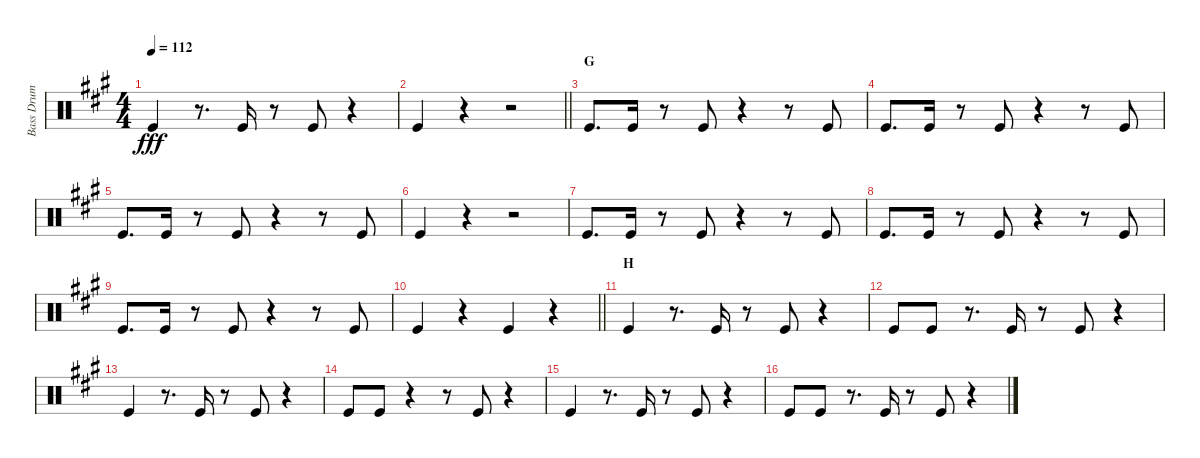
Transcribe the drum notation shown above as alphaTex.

\track ("Bass Drum" "Bass Drum") {instrument percussion}
\staff {score}
\articulation defaults
\ts (4 4)
\tempo 112
\clef neutral
\ks a "Kick (hit)".4{dy fff}
r.8{d} "Kick (hit)".16 r.8 "Kick (hit)".8 r.4 |
\barLineRight lightlight "Kick (hit)".4
r.4 r.2 |
\section ("" "G")
"Kick (hit)".8{d} "Kick (hit)".16 r.8 "Kick (hit)".8 r.4 r.8 "Kick (hit)".8 |
"Kick (hit)".8{d} "Kick (hit)".16 r.8 "Kick (hit)".8 r.4 r.8 "Kick (hit)".8 |
"Kick (hit)".8{d} "Kick (hit)".16 r.8 "Kick (hit)".8 r.4 r.8 "Kick (hit)".8 |
"Kick (hit)".4 r.4 r.2 |
"Kick (hit)".8{d} "Kick (hit)".16 r.8 "Kick (hit)".8 r.4 r.8 "Kick (hit)".8 |
"Kick (hit)".8{d} "Kick (hit)".16 r.8 "Kick (hit)".8 r.4 r.8 "Kick (hit)".8 |
"Kick (hit)".8{d} "Kick (hit)".16 r.8 "Kick (hit)".8 r.4 r.8 "Kick (hit)".8 |
\barLineRight lightlight "Kick (hit)".4
r.4 "Kick (hit)".4 r.4 |
\section ("" "H")
"Kick (hit)".4 r.8{d} "Kick (hit)".16 r.8 "Kick (hit)".8 r.4 |
"Kick (hit)".8 "Kick (hit)".8 r.8{d} "Kick (hit)".16 r.8 "Kick (hit)".8 r.4 |
"Kick (hit)".4 r.8{d} "Kick (hit)".16 r.8 "Kick (hit)".8 r.4 |
"Kick (hit)".8 "Kick (hit)".8 r.4 r.8 "Kick (hit)".8 r.4 |
"Kick (hit)".4 r.8{d} "Kick (hit)".16 r.8 "Kick (hit)".8 r.4 |
"Kick (hit)".8 "Kick (hit)".8 r.8{d} "Kick (hit)".16 r.8 "Kick (hit)".8 r.4
